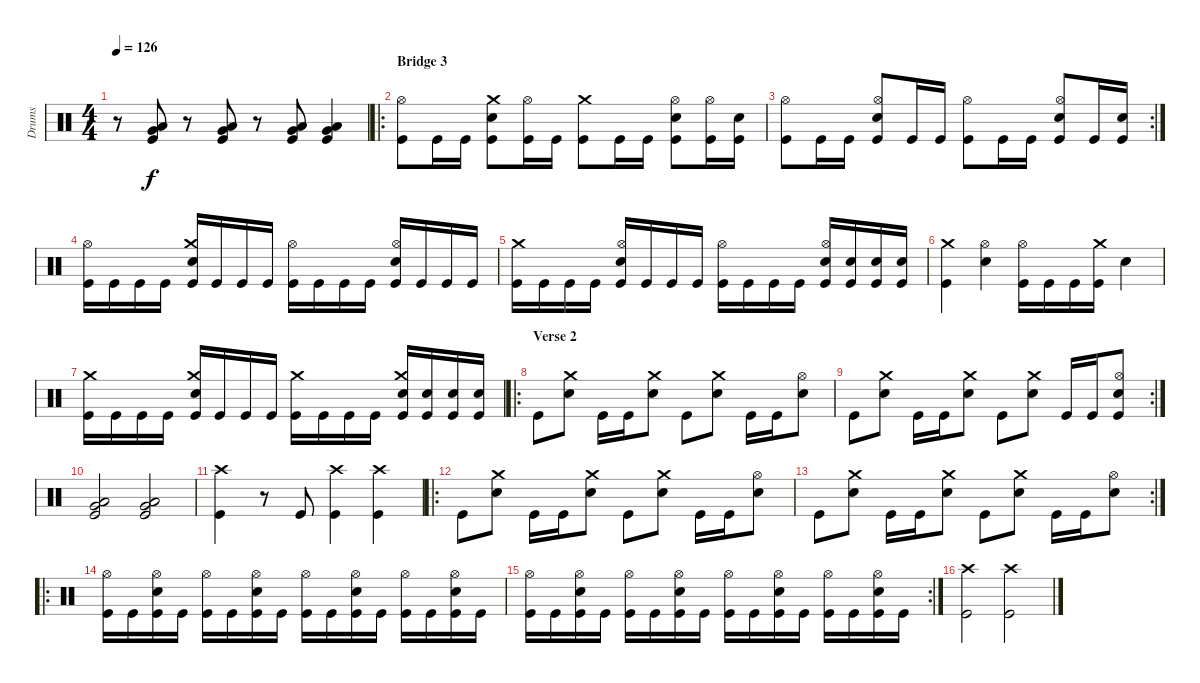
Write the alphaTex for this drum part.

\track ("Drums" "Drums") {instrument percussion}
\staff {score}
\articulation defaults
\ts (4 4)
\tempo 126
\clef neutral
\ks c
r.8{dy f} ("Low Tom (hit)" "Very Low Tom (hit)" "Kick (hit)").8 r.8 ("Low Tom (hit)" "Very Low Tom (hit)" "Kick (hit)").8 r.8 ("Low Tom (hit)" "Very Low Tom (hit)" "Kick (hit)").8 ("Very Low Tom (hit)" "Low Tom (hit)" "Kick (hit)").4 |
\ro
\section ("" "Bridge 3")
("Hi-Hat (open)" "Kick (hit)").8 "Kick (hit)".16 "Kick (hit)".16 ("Crash medium (hit)" "Electric Snare (hit)" "Kick (hit)").8 ("Hi-Hat (open)" "Kick (hit)").16 "Kick (hit)".16 ("Crash medium (hit)" "Kick (hit)").8 "Kick (hit)".16 "Kick (hit)".16 ("Electric Snare (hit)" "Hi-Hat (open)" "Kick (hit)").8 ("Hi-Hat (open)" "Kick (hit)").16 ("Electric Snare (hit)" "Kick (hit)").16 |
\rc 2
("Hi-Hat (open)" "Kick (hit)").8 "Kick (hit)".16 "Kick (hit)".16 ("Hi-Hat (open)" "Electric Snare (hit)" "Kick (hit)").8 "Kick (hit)".16 "Kick (hit)".16 ("Hi-Hat (open)" "Kick (hit)").8 "Kick (hit)".16 "Kick (hit)".16 ("Electric Snare (hit)" "Hi-Hat (open)" "Kick (hit)").8 "Kick (hit)".16 ("Electric Snare (hit)" "Kick (hit)").16 |
("Hi-Hat (open)" "Kick (hit)").16 "Kick (hit)".16 "Kick (hit)".16 "Kick (hit)".16 ("Crash medium (hit)" "Electric Snare (hit)" "Kick (hit)").16 "Kick (hit)".16 "Kick (hit)".16 "Kick (hit)".16 ("Hi-Hat (open)" "Kick (hit)").16 "Kick (hit)".16 "Kick (hit)".16 "Kick (hit)".16 ("Hi-Hat (open)" "Electric Snare (hit)" "Kick (hit)").16 "Kick (hit)".16 "Kick (hit)".16 "Kick (hit)".16 |
("Crash medium (hit)" "Kick (hit)").16 "Kick (hit)".16 "Kick (hit)".16 "Kick (hit)".16 ("Hi-Hat (open)" "Electric Snare (hit)" "Kick (hit)").16 "Kick (hit)".16 "Kick (hit)".16 "Kick (hit)".16 ("Hi-Hat (open)" "Kick (hit)").16 "Kick (hit)".16 "Kick (hit)".16 "Kick (hit)".16 ("Hi-Hat (open)" "Electric Snare (hit)" "Kick (hit)").16 ("Electric Snare (hit)" "Kick (hit)").16 ("Electric Snare (hit)" "Kick (hit)").16 ("Electric Snare (hit)" "Kick (hit)").16 |
("Crash medium (hit)" "Kick (hit)").4 ("Hi-Hat (open)" "Electric Snare (hit)").4 ("Hi-Hat (open)" "Kick (hit)").16 "Kick (hit)".16 "Kick (hit)".16 ("Crash medium (hit)" "Kick (hit)").16 "Electric Snare (hit)".4 |
("Crash medium (hit)" "Kick (hit)").16 "Kick (hit)".16 "Kick (hit)".16 "Kick (hit)".16 ("Crash medium (hit)" "Electric Snare (hit)" "Kick (hit)").16 "Kick (hit)".16 "Kick (hit)".16 "Kick (hit)".16 ("Crash medium (hit)" "Kick (hit)").16 "Kick (hit)".16 "Kick (hit)".16 "Kick (hit)".16 ("Crash medium (hit)" "Electric Snare (hit)" "Kick (hit)").16 ("Electric Snare (hit)" "Kick (hit)").16 ("Electric Snare (hit)" "Kick (hit)").16 ("Electric Snare (hit)" "Kick (hit)").16 |
\ro
\section ("" "Verse 2")
"Kick (hit)".8 ("Crash medium (hit)" "Electric Snare (hit)").8 "Kick (hit)".16 "Kick (hit)".16 ("Crash medium (hit)" "Electric Snare (hit)").8 "Kick (hit)".8 ("Crash medium (hit)" "Electric Snare (hit)").8 "Kick (hit)".16 "Kick (hit)".16 ("Hi-Hat (open)" "Electric Snare (hit)").8 |
\rc 2 "Kick (hit)".8
("Crash medium (hit)" "Electric Snare (hit)").8 "Kick (hit)".16 "Kick (hit)".16 ("Crash medium (hit)" "Electric Snare (hit)").8 "Kick (hit)".8 ("Crash medium (hit)" "Electric Snare (hit)").8 "Kick (hit)".16 "Kick (hit)".16 ("Hi-Hat (open)" "Electric Snare (hit)" "Kick (hit)").8 |
("Low Tom (hit)" "Very Low Tom (hit)" "Kick (hit)").2 ("Low Tom (hit)" "Very Low Tom (hit)" "Kick (hit)").2 |
("Crash high (hit)" "Kick (hit)").4 r.8 "Kick (hit)".8 ("Crash high (hit)" "Kick (hit)").4 ("Crash high (hit)" "Kick (hit)").4 |
\ro "Kick (hit)".8
("Crash medium (hit)" "Electric Snare (hit)").8 "Kick (hit)".16 "Kick (hit)".16 ("Crash medium (hit)" "Electric Snare (hit)").8 "Kick (hit)".8 ("Crash medium (hit)" "Electric Snare (hit)").8 "Kick (hit)".16 "Kick (hit)".16 ("Hi-Hat (open)" "Electric Snare (hit)").8 |
\rc 2 "Kick (hit)".8
("Crash medium (hit)" "Electric Snare (hit)").8 "Kick (hit)".16 "Kick (hit)".16 ("Crash medium (hit)" "Electric Snare (hit)").8 "Kick (hit)".8 ("Crash medium (hit)" "Electric Snare (hit)").8 "Kick (hit)".16 "Kick (hit)".16 ("Hi-Hat (open)" "Electric Snare (hit)").8 |
\ro
("Hi-Hat (open)" "Kick (hit)").16 "Kick (hit)".16 ("Hi-Hat (open)" "Electric Snare (hit)" "Kick (hit)").16 "Kick (hit)".16 ("Hi-Hat (open)" "Kick (hit)").16 "Kick (hit)".16 ("Hi-Hat (open)" "Electric Snare (hit)" "Kick (hit)").16 "Kick (hit)".16 ("Hi-Hat (open)" "Kick (hit)").16 "Kick (hit)".16 ("Hi-Hat (open)" "Electric Snare (hit)" "Kick (hit)").16 "Kick (hit)".16 ("Hi-Hat (open)" "Kick (hit)").16 "Kick (hit)".16 ("Hi-Hat (open)" "Electric Snare (hit)" "Kick (hit)").16 "Kick (hit)".16 |
\rc 2
("Hi-Hat (open)" "Kick (hit)").16 "Kick (hit)".16 ("Hi-Hat (open)" "Electric Snare (hit)" "Kick (hit)").16 "Kick (hit)".16 ("Hi-Hat (open)" "Kick (hit)").16 "Kick (hit)".16 ("Hi-Hat (open)" "Electric Snare (hit)" "Kick (hit)").16 "Kick (hit)".16 ("Hi-Hat (open)" "Kick (hit)").16 "Kick (hit)".16 ("Hi-Hat (open)" "Electric Snare (hit)" "Kick (hit)").16 "Kick (hit)".16 ("Hi-Hat (open)" "Kick (hit)").16 "Kick (hit)".16 ("Hi-Hat (open)" "Electric Snare (hit)" "Kick (hit)").16 "Kick (hit)".16 |
("Crash high (hit)" "Kick (hit)").2 ("Crash high (hit)" "Kick (hit)").2
